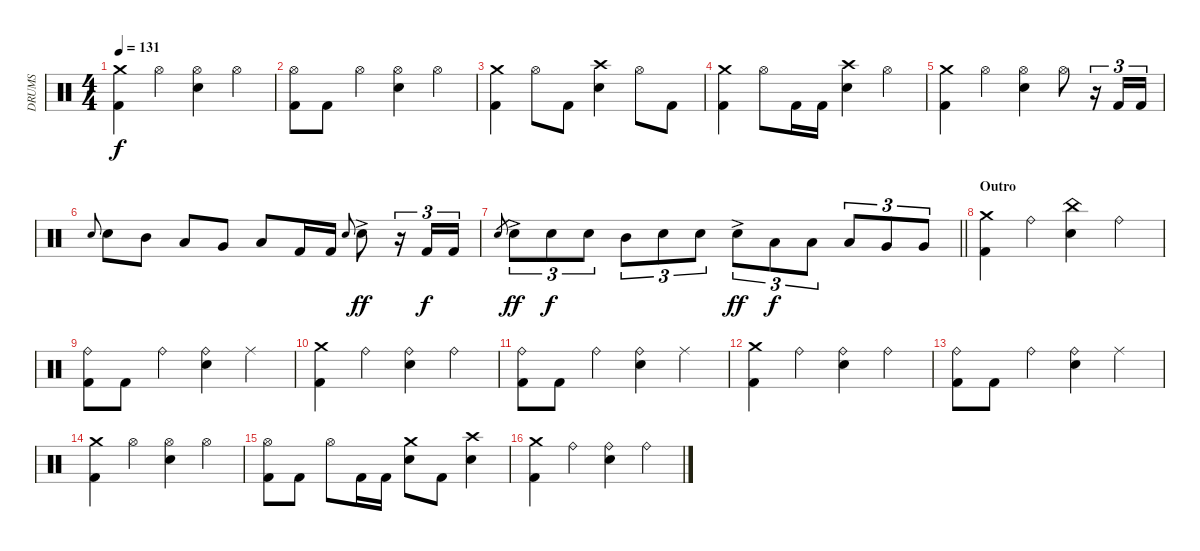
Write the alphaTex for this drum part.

\track ("DRUMS" "DRUMS") {instrument percussion}
\staff {score}
\articulation defaults
\ts (4 4)
\tempo 131
\clef neutral
\ks c
("Crash medium (hit)" "Kick (hit) 2").4{dy f} "Hi-Hat (open)".4 ("Hi-Hat (open)" "Snare (hit) 2").4 "Hi-Hat (open)".4 |
("Hi-Hat (open)" "Kick (hit) 2").8 "Kick (hit) 2".8 "Hi-Hat (open)".4 ("Hi-Hat (open)" "Snare (hit) 2").4 "Hi-Hat (open)".4 |
("Crash medium (hit)" "Kick (hit) 2").4 "Hi-Hat (open)".8 "Kick (hit) 2".8 ("Crash high (hit)" "Snare (hit) 2").4 "Hi-Hat (open)".8 "Kick (hit) 2".8 |
("Crash medium (hit)" "Kick (hit) 2").4 "Hi-Hat (open)".8 "Kick (hit) 2".16 "Kick (hit) 2".16 ("Crash high (hit)" "Snare (hit) 2").4 "Hi-Hat (open)".4 |
("Crash medium (hit)" "Kick (hit) 2").4 "Hi-Hat (open)".4 ("Hi-Hat (open)" "Snare (hit) 2").4 "Hi-Hat (open)".8 r.16{tu (3 2)} "Kick (hit) 2".16{tu (3 2)} "Kick (hit) 2".16{tu (3 2)} |
"Snare (hit) 2".8{gr onbeat} "Snare (hit) 2".8 "Mid Tom (hit)".8 "Low Tom (hit)".8 "Very Low Tom (hit)".8 "Low Floor Tom (hit)".8 "Kick (hit) 2".16 "Kick (hit) 2".16 "Snare (hit) 2".8{gr onbeat} "Snare (hit) 2"{ac}.8{dy ff} r.16{tu (3 2)} "Kick (hit) 2".16{tu (3 2) dy f} "Kick (hit) 2".16{tu (3 2)} |
\barLineRight lightlight "Snare (hit) 2".8{gr} "Snare (hit) 2"{ac}.8{tu (3 2) dy ff} "Snare (hit) 2".8{tu (3 2) dy f} "Snare (hit) 2".8{tu (3 2)} "Mid Tom (hit)".8{tu (3 2)} "Snare (hit) 2".8{tu (3 2)} "Snare (hit) 2".8{tu (3 2)} "Snare (hit) 2"{ac}.8{tu (3 2) dy ff} "Low Tom (hit)".8{tu (3 2) dy f} "Low Tom (hit)".8{tu (3 2)} "Low Tom (hit)".8{tu (3 2)} "Very Low Tom (hit)".8{tu (3 2)} "Very Low Tom (hit)".8{tu (3 2)}
|
\section ("" "Outro")
("Crash medium (hit)" "Kick (hit) 2").4 "Ride (bell)".4 ("China (hit)" "Snare (hit) 2").4 "Ride (bell)".4 |
("Ride (bell)" "Kick (hit) 2").8 "Kick (hit) 2".8 "Ride (bell)".4 ("Ride (bell)" "Snare (hit) 2").4 "Ride (middle)".4 |
("Crash medium (hit)" "Kick (hit) 2").4 "Ride (bell)".4 ("Ride (bell)" "Snare (hit) 2").4 "Ride (bell)".4 |
("Ride (bell)" "Kick (hit) 2").8 "Kick (hit) 2".8 "Ride (bell)".4 ("Ride (bell)" "Snare (hit) 2").4 "Ride (middle)".4 |
("Crash medium (hit)" "Kick (hit) 2").4 "Ride (bell)".4 ("Ride (bell)" "Snare (hit) 2").4 "Ride (bell)".4 |
("Ride (bell)" "Kick (hit) 2").8 "Kick (hit) 2".8 "Ride (bell)".4 ("Ride (bell)" "Snare (hit) 2").4 "Ride (middle)".4 |
("Crash medium (hit)" "Kick (hit) 2").4 "Hi-Hat (open)".4 ("Hi-Hat (open)" "Snare (hit) 2").4 "Hi-Hat (open)".4 |
("Hi-Hat (open)" "Kick (hit) 2").8 "Kick (hit) 2".8 "Hi-Hat (open)".8 "Kick (hit) 2".16 "Kick (hit) 2".16 ("Crash medium (hit)" "Snare (hit) 2").8 "Kick (hit) 2".8 ("Crash high (hit)" "Snare (hit) 2").4 |
("Crash medium (hit)" "Kick (hit) 2").4 "Ride (bell)".4 ("Ride (bell)" "Snare (hit) 2").4 "Ride (bell)".4
